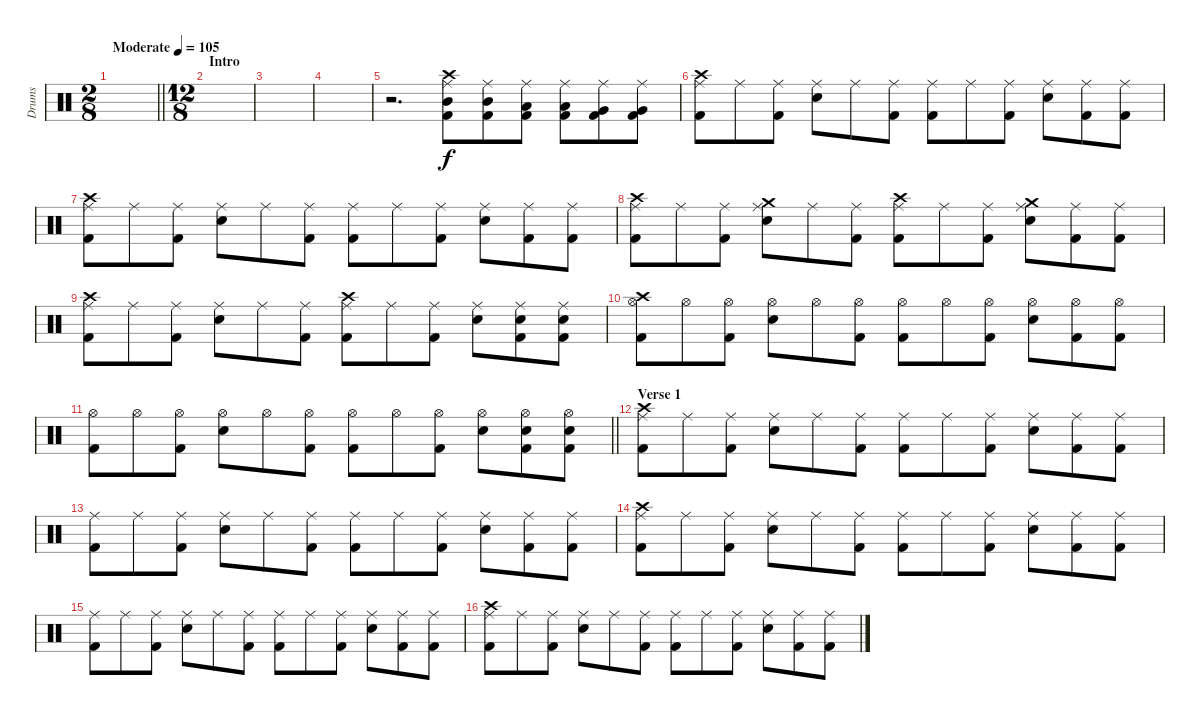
\track ("Drums" "Drums") {instrument percussion}
\staff {score}
\articulation defaults
\ts (2 8)
\tempo (105 "Moderate")
\clef neutral
\barLineRight lightlight
\ks c
|
\ts (12 8)
\section ("" "Intro")
|
|
|
r.2{d} ("Crash high (hit)" "Ride (middle)" "Mid Tom (hit)" "Kick (hit) 2").8 ("Ride (middle)" "Mid Tom (hit)" "Kick (hit) 2").8 ("Ride (middle)" "Low Tom (hit)" "Kick (hit) 2").8 ("Ride (middle)" "Low Tom (hit)" "Kick (hit) 2").8 ("Ride (middle)" "Very Low Tom (hit)" "Kick (hit) 2").8 ("Ride (middle)" "Very Low Tom (hit)" "Kick (hit) 2").8 |
("Crash high (hit)" "Ride (middle)" "Kick (hit) 2").8 "Ride (middle)".8 ("Ride (middle)" "Kick (hit) 2").8 ("Ride (middle)" "Snare (hit) 2").8 "Ride (middle)".8 ("Ride (middle)" "Kick (hit) 2").8 ("Ride (middle)" "Kick (hit) 2").8 "Ride (middle)".8 ("Ride (middle)" "Kick (hit) 2").8 ("Ride (middle)" "Snare (hit) 2").8 ("Ride (middle)" "Kick (hit) 2").8 ("Ride (middle)" "Kick (hit) 2").8 |
("Crash high (hit)" "Ride (middle)" "Kick (hit) 2").8 "Ride (middle)".8 ("Ride (middle)" "Kick (hit) 2").8 ("Ride (middle)" "Snare (hit) 2").8 "Ride (middle)".8 ("Ride (middle)" "Kick (hit) 2").8 ("Ride (middle)" "Kick (hit) 2").8 "Ride (middle)".8 ("Ride (middle)" "Kick (hit) 2").8 ("Ride (middle)" "Snare (hit) 2").8 ("Ride (middle)" "Kick (hit) 2").8 ("Ride (middle)" "Kick (hit) 2").8 |
("Crash high (hit)" "Ride (middle)" "Kick (hit) 2").8 "Ride (middle)".8 ("Ride (middle)" "Kick (hit) 2").8 ("Crash medium (hit)" "Ride (middle)" "Snare (hit) 2").8 "Ride (middle)".8 ("Ride (middle)" "Kick (hit) 2").8 ("Crash high (hit)" "Ride (middle)" "Kick (hit) 2").8 "Ride (middle)".8 ("Ride (middle)" "Kick (hit) 2").8 ("Crash medium (hit)" "Ride (middle)" "Snare (hit) 2").8 ("Ride (middle)" "Kick (hit) 2").8 ("Ride (middle)" "Kick (hit) 2").8 |
("Crash high (hit)" "Ride (middle)" "Kick (hit) 2").8 "Ride (middle)".8 ("Ride (middle)" "Kick (hit) 2").8 ("Ride (middle)" "Snare (hit) 2").8 "Ride (middle)".8 ("Ride (middle)" "Kick (hit) 2").8 ("Crash high (hit)" "Ride (middle)" "Kick (hit) 2").8 "Ride (middle)".8 ("Ride (middle)" "Kick (hit) 2").8 ("Ride (middle)" "Snare (hit) 2").8 ("Ride (middle)" "Snare (hit) 2" "Kick (hit) 2").8 ("Ride (middle)" "Snare (hit) 2" "Kick (hit) 2").8 |
("Crash high (hit)" "Hi-Hat (open)" "Kick (hit) 2").8 "Hi-Hat (open)".8 ("Hi-Hat (open)" "Kick (hit) 2").8 ("Hi-Hat (open)" "Snare (hit) 2").8 "Hi-Hat (open)".8 ("Hi-Hat (open)" "Kick (hit) 2").8 ("Hi-Hat (open)" "Kick (hit) 2").8 "Hi-Hat (open)".8 ("Hi-Hat (open)" "Kick (hit) 2").8 ("Hi-Hat (open)" "Snare (hit) 2").8 ("Hi-Hat (open)" "Kick (hit) 2").8 ("Hi-Hat (open)" "Kick (hit) 2").8 |
\barLineRight lightlight
("Hi-Hat (open)" "Kick (hit) 2").8 "Hi-Hat (open)".8 ("Hi-Hat (open)" "Kick (hit) 2").8 ("Hi-Hat (open)" "Snare (hit) 2").8 "Hi-Hat (open)".8 ("Hi-Hat (open)" "Kick (hit) 2").8 ("Hi-Hat (open)" "Kick (hit) 2").8 "Hi-Hat (open)".8 ("Hi-Hat (open)" "Kick (hit) 2").8 ("Hi-Hat (open)" "Snare (hit) 2").8 ("Hi-Hat (open)" "Snare (hit) 2" "Kick (hit) 2").8 ("Hi-Hat (open)" "Snare (hit) 2" "Kick (hit) 2").8 |
\section ("" "Verse 1")
("Crash high (hit)" "Ride (middle)" "Kick (hit) 2").8 "Ride (middle)".8 ("Ride (middle)" "Kick (hit) 2").8 ("Ride (middle)" "Snare (hit) 2").8 "Ride (middle)".8 ("Ride (middle)" "Kick (hit) 2").8 ("Ride (middle)" "Kick (hit) 2").8 "Ride (middle)".8 ("Ride (middle)" "Kick (hit) 2").8 ("Ride (middle)" "Snare (hit) 2").8 ("Ride (middle)" "Kick (hit) 2").8 ("Ride (middle)" "Kick (hit) 2").8 |
("Ride (middle)" "Kick (hit) 2").8 "Ride (middle)".8 ("Ride (middle)" "Kick (hit) 2").8 ("Ride (middle)" "Snare (hit) 2").8 "Ride (middle)".8 ("Ride (middle)" "Kick (hit) 2").8 ("Ride (middle)" "Kick (hit) 2").8 "Ride (middle)".8 ("Ride (middle)" "Kick (hit) 2").8 ("Ride (middle)" "Snare (hit) 2").8 ("Ride (middle)" "Kick (hit) 2").8 ("Ride (middle)" "Kick (hit) 2").8 |
("Crash high (hit)" "Ride (middle)" "Kick (hit) 2").8 "Ride (middle)".8 ("Ride (middle)" "Kick (hit) 2").8 ("Ride (middle)" "Snare (hit) 2").8 "Ride (middle)".8 ("Ride (middle)" "Kick (hit) 2").8 ("Ride (middle)" "Kick (hit) 2").8 "Ride (middle)".8 ("Ride (middle)" "Kick (hit) 2").8 ("Ride (middle)" "Snare (hit) 2").8 ("Ride (middle)" "Kick (hit) 2").8 ("Ride (middle)" "Kick (hit) 2").8 |
("Ride (middle)" "Kick (hit) 2").8 "Ride (middle)".8 ("Ride (middle)" "Kick (hit) 2").8 ("Ride (middle)" "Snare (hit) 2").8 "Ride (middle)".8 ("Ride (middle)" "Kick (hit) 2").8 ("Ride (middle)" "Kick (hit) 2").8 "Ride (middle)".8 ("Ride (middle)" "Kick (hit) 2").8 ("Ride (middle)" "Snare (hit) 2").8 ("Ride (middle)" "Kick (hit) 2").8 ("Ride (middle)" "Kick (hit) 2").8 |
("Crash high (hit)" "Ride (middle)" "Kick (hit) 2").8 "Ride (middle)".8 ("Ride (middle)" "Kick (hit) 2").8 ("Ride (middle)" "Snare (hit) 2").8 "Ride (middle)".8 ("Ride (middle)" "Kick (hit) 2").8 ("Ride (middle)" "Kick (hit) 2").8 "Ride (middle)".8 ("Ride (middle)" "Kick (hit) 2").8 ("Ride (middle)" "Snare (hit) 2").8 ("Ride (middle)" "Kick (hit) 2").8 ("Ride (middle)" "Kick (hit) 2").8
